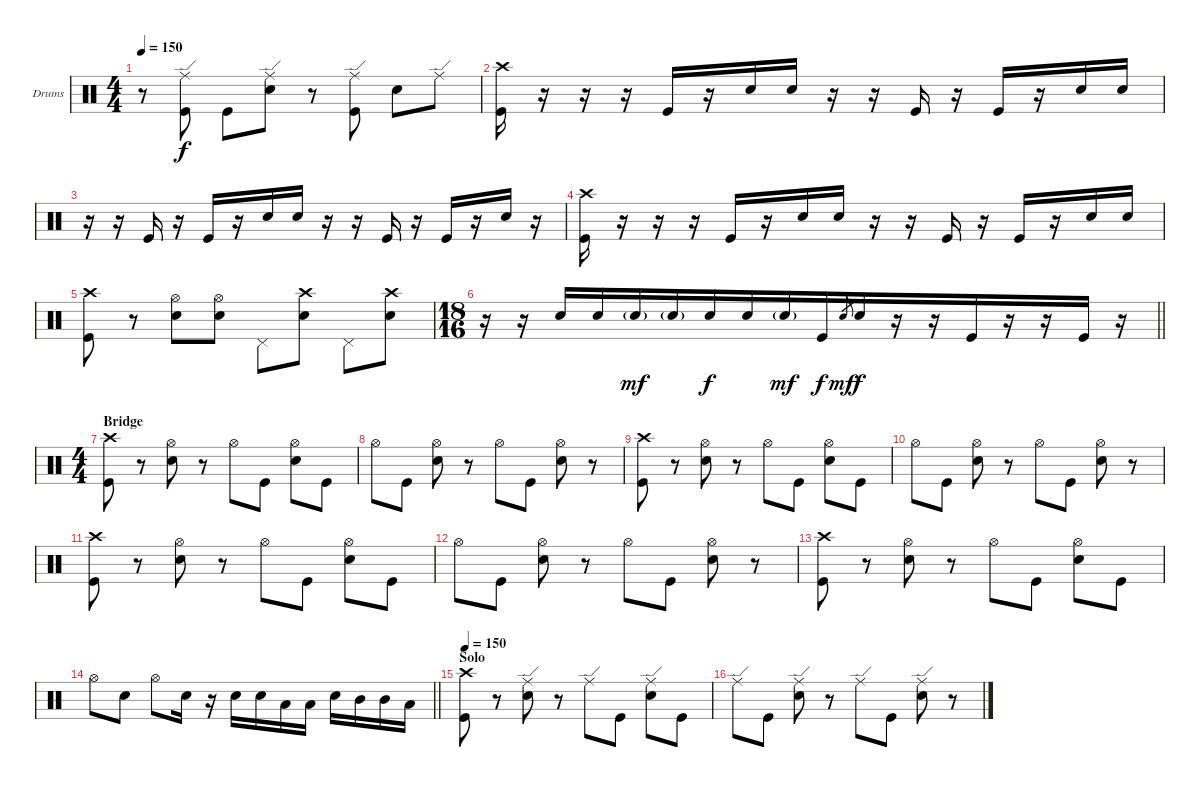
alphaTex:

\bracketExtendMode nobrackets
\firstSystemTrackNameOrientation horizontal
\otherSystemsTrackNameOrientation horizontal
\track ("Drumkit" "Drums") {instrument percussion}
\staff {score}
\articulation defaults
\ts (4 4)
\tempo 150
\clef neutral
\ks c
r.8{dy f} ("Ride (edge)" "Kick (hit)").8 "Kick (hit)".8 ("Ride (edge)" "Snare (hit) 2").8 r.8 ("Ride (edge)" "Kick (hit)").8 "Snare (hit) 2".8 "Ride (edge)".8 |
("Crash high (hit)" "Kick (hit)").16 r.16 r.16 r.16 "Kick (hit)".16 r.16 "Snare (hit) 2".16 "Snare (hit) 2".16 r.16 r.16 "Kick (hit)".16 r.16 "Kick (hit)".16 r.16 "Snare (hit) 2".16 "Snare (hit) 2".16 |
r.16 r.16 "Kick (hit)".16 r.16 "Kick (hit)".16 r.16 "Snare (hit) 2".16 "Snare (hit) 2".16 r.16 r.16 "Kick (hit)".16 r.16 "Kick (hit)".16 r.16 "Snare (hit) 2".16 r.16 |
("Crash high (hit)" "Kick (hit)").16 r.16 r.16 r.16 "Kick (hit)".16 r.16 "Snare (hit) 2".16 "Snare (hit) 2".16 r.16 r.16 "Kick (hit)".16 r.16 "Kick (hit)".16 r.16 "Snare (hit) 2".16 "Snare (hit) 2".16 |
("Crash high (hit)" "Kick (hit)").8 r.8 ("Hi-Hat (open)" "Snare (hit) 2").8 ("Hi-Hat (open)" "Snare (hit) 2").8 "Pedal Hi-Hat (hit)".8 ("Crash high (hit)" "Snare (hit) 2").8 "Pedal Hi-Hat (hit)".8 ("Crash high (hit)" "Snare (hit) 2").8 |
\ts (18 16)
\beaming (8 9)
\barLineRight lightlight
r.16 r.16 "Snare (hit) 2".16 "Snare (hit) 2".16 "Snare (hit) 2"{g}.16{dy mf} "Snare (hit) 2"{g}.16 "Snare (hit) 2".16{dy f} "Snare (hit) 2".16 "Snare (hit) 2"{g}.16{dy mf} "Kick (hit)".16{dy f} "Snare (hit) 2".8{gr dy mf} "Snare (hit) 2".16{dy f} r.16 r.16 "Kick (hit)".16 r.16 r.16 "Kick (hit)".16 r.16 |
\ts (4 4)
\beaming (8 2 2 2 2)
\section ("" "Bridge")
("Crash high (hit)" "Kick (hit)").8 r.8 ("Hi-Hat (open)" "Snare (hit) 2").8 r.8 "Hi-Hat (open)".8 "Kick (hit)".8 ("Hi-Hat (open)" "Snare (hit) 2").8 "Kick (hit)".8 |
"Hi-Hat (open)".8 "Kick (hit)".8 ("Hi-Hat (open)" "Snare (hit) 2").8 r.8 "Hi-Hat (open)".8 "Kick (hit)".8 ("Hi-Hat (open)" "Snare (hit) 2").8 r.8 |
("Crash high (hit)" "Kick (hit)").8 r.8 ("Hi-Hat (open)" "Snare (hit) 2").8 r.8 "Hi-Hat (open)".8 "Kick (hit)".8 ("Hi-Hat (open)" "Snare (hit) 2").8 "Kick (hit)".8 |
"Hi-Hat (open)".8 "Kick (hit)".8 ("Hi-Hat (open)" "Snare (hit) 2").8 r.8 "Hi-Hat (open)".8 "Kick (hit)".8 ("Hi-Hat (open)" "Snare (hit) 2").8 r.8 |
("Crash high (hit)" "Kick (hit)").8 r.8 ("Hi-Hat (open)" "Snare (hit) 2").8 r.8 "Hi-Hat (open)".8 "Kick (hit)".8 ("Hi-Hat (open)" "Snare (hit) 2").8 "Kick (hit)".8 |
"Hi-Hat (open)".8 "Kick (hit)".8 ("Hi-Hat (open)" "Snare (hit) 2").8 r.8 "Hi-Hat (open)".8 "Kick (hit)".8 ("Hi-Hat (open)" "Snare (hit) 2").8 r.8 |
("Crash high (hit)" "Kick (hit)").8 r.8 ("Hi-Hat (open)" "Snare (hit) 2").8 r.8 "Hi-Hat (open)".8 "Kick (hit)".8 ("Hi-Hat (open)" "Snare (hit) 2").8 "Kick (hit)".8 |
\barLineRight lightlight "Hi-Hat (open)".8 "Snare (hit) 2".8 "Hi-Hat (open)".8 "Snare (hit) 2".16
r.16 "Snare (hit) 2".16 "Snare (hit) 2".16 "Low Tom (hit)".16 "Low Tom (hit)".16 "Snare (hit) 2".16 "Mid Tom (hit)".16 "Mid Tom (hit)".16 "Low Tom (hit)".16 |
\section ("" "Solo")
\tempo 150
("Crash high (hit)" "Kick (hit)").8 r.8 ("Ride (edge)" "Snare (hit) 2").8 r.8 "Ride (edge)".8 "Kick (hit)".8 ("Ride (edge)" "Snare (hit) 2").8 "Kick (hit)".8 |
"Ride (edge)".8 "Kick (hit)".8 ("Ride (edge)" "Snare (hit) 2").8 r.8 "Ride (edge)".8 "Kick (hit)".8 ("Ride (edge)" "Snare (hit) 2").8 r.8
